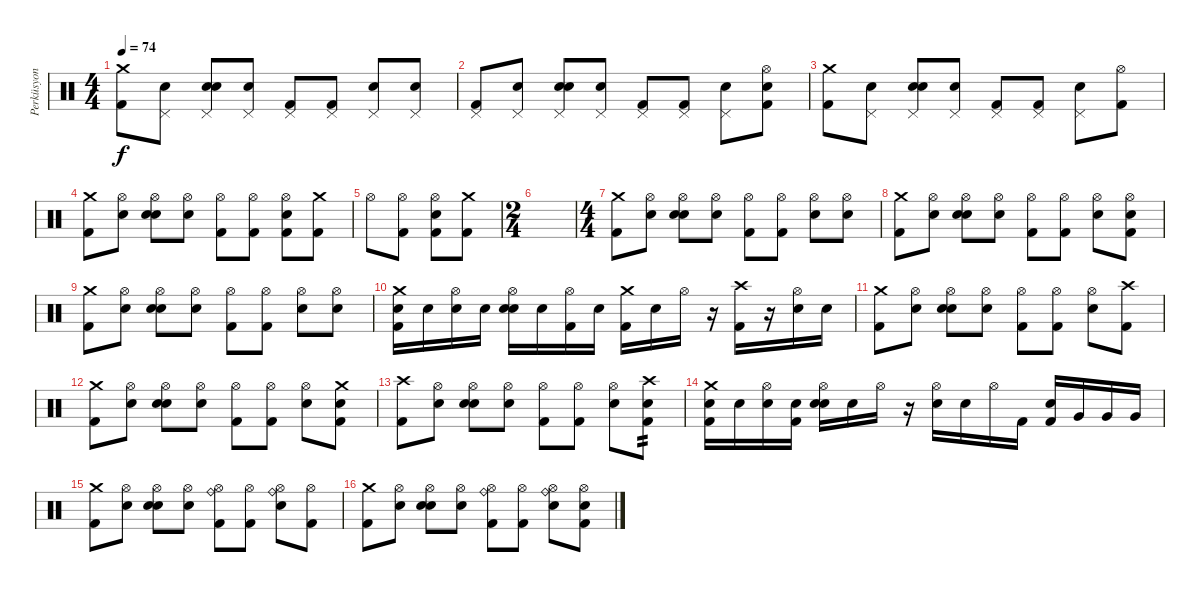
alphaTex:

\track ("Perküsyon" "Perküsyon") {instrument percussion}
\staff {score}
\articulation defaults
\ts (4 4)
\tempo 74
\clef neutral
\ks c
("Crash medium (hit)" "Kick (hit) 2").8{dy f} ("Pedal Hi-Hat (hit)" "Snare (hit)").8 ("Pedal Hi-Hat (hit)" "Electric Snare (hit)" "Snare (hit)").8 ("Pedal Hi-Hat (hit)" "Snare (hit)").8 ("Pedal Hi-Hat (hit)" "Kick (hit) 2").8 ("Pedal Hi-Hat (hit)" "Kick (hit) 2").8 ("Pedal Hi-Hat (hit)" "Electric Snare (hit)").8 ("Pedal Hi-Hat (hit)" "Snare (hit)").8 |
("Pedal Hi-Hat (hit)" "Kick (hit) 2").8 ("Pedal Hi-Hat (hit)" "Snare (hit)").8 ("Pedal Hi-Hat (hit)" "Electric Snare (hit)" "Snare (hit)").8 ("Pedal Hi-Hat (hit)" "Snare (hit)").8 ("Pedal Hi-Hat (hit)" "Kick (hit) 2").8 ("Pedal Hi-Hat (hit)" "Kick (hit) 2").8 ("Pedal Hi-Hat (hit)" "Electric Snare (hit)").8 ("Hi-Hat (open)" "Snare (hit)" "Kick (hit) 2").8 |
("Crash medium (hit)" "Kick (hit) 2").8 ("Pedal Hi-Hat (hit)" "Snare (hit)").8 ("Pedal Hi-Hat (hit)" "Electric Snare (hit)" "Snare (hit)").8 ("Pedal Hi-Hat (hit)" "Snare (hit)").8 ("Pedal Hi-Hat (hit)" "Kick (hit) 2").8 ("Pedal Hi-Hat (hit)" "Kick (hit) 2").8 ("Pedal Hi-Hat (hit)" "Electric Snare (hit)").8 ("Hi-Hat (open)" "Kick (hit) 2").8 |
("Crash medium (hit)" "Kick (hit) 2").8 ("Hi-Hat (open)" "Snare (hit)").8 ("Hi-Hat (open)" "Electric Snare (hit)" "Snare (hit)").8 ("Hi-Hat (open)" "Snare (hit)").8 ("Hi-Hat (open)" "Kick (hit) 2").8 ("Hi-Hat (open)" "Kick (hit) 2").8 ("Hi-Hat (open)" "Electric Snare (hit)" "Kick (hit) 2").8 ("Crash medium (hit)" "Kick (hit) 2").8 |
"Hi-Hat (open)".8 ("Hi-Hat (open)" "Kick (hit) 2").8 ("Hi-Hat (open)" "Electric Snare (hit)" "Kick (hit) 2").8 ("Crash medium (hit)" "Kick (hit) 2").8 |
\ts (2 4)
|
\ts (4 4)
("Crash medium (hit)" "Kick (hit) 2").8 ("Hi-Hat (open)" "Snare (hit)").8 ("Hi-Hat (open)" "Electric Snare (hit)" "Snare (hit)").8 ("Hi-Hat (open)" "Snare (hit)").8 ("Hi-Hat (open)" "Kick (hit) 2").8 ("Hi-Hat (open)" "Kick (hit) 2").8 ("Hi-Hat (open)" "Electric Snare (hit)").8 ("Hi-Hat (open)" "Snare (hit)").8 |
("Crash medium (hit)" "Kick (hit) 2").8 ("Hi-Hat (open)" "Snare (hit)").8 ("Hi-Hat (open)" "Electric Snare (hit)" "Snare (hit)").8 ("Hi-Hat (open)" "Snare (hit)").8 ("Hi-Hat (open)" "Kick (hit) 2").8 ("Hi-Hat (open)" "Kick (hit) 2").8 ("Hi-Hat (open)" "Electric Snare (hit)").8 ("Hi-Hat (open)" "Snare (hit)" "Kick (hit) 2").8 |
("Crash medium (hit)" "Kick (hit) 2").8 ("Hi-Hat (open)" "Snare (hit)").8 ("Hi-Hat (open)" "Electric Snare (hit)" "Snare (hit)").8 ("Hi-Hat (open)" "Snare (hit)").8 ("Hi-Hat (open)" "Kick (hit) 2").8 ("Hi-Hat (open)" "Kick (hit) 2").8 ("Hi-Hat (open)" "Electric Snare (hit)").8 ("Hi-Hat (open)" "Snare (hit)").8 |
("Crash medium (hit)" "Snare (hit)" "Kick (hit) 2").16 "Snare (hit)".16 ("Hi-Hat (open)" "Snare (hit)").16 "Snare (hit)".16 ("Hi-Hat (open)" "Electric Snare (hit)" "Snare (hit)").16 "Snare (hit)".16 ("Hi-Hat (open)" "Kick (hit) 2").16 "Electric Snare (hit)".16 ("Crash medium (hit)" "Kick (hit) 2").16 "Snare (hit)".16 "Hi-Hat (open)".16 r.16 ("Crash high (hit)" "Kick (hit) 2").16 r.16 ("Hi-Hat (open)" "Electric Snare (hit)").16 "Electric Snare (hit)".16 |
("Crash medium (hit)" "Kick (hit) 2").8 ("Hi-Hat (open)" "Snare (hit)").8 ("Hi-Hat (open)" "Electric Snare (hit)" "Snare (hit)").8 ("Hi-Hat (open)" "Snare (hit)").8 ("Hi-Hat (open)" "Kick (hit) 2").8 ("Hi-Hat (open)" "Kick (hit) 2").8 ("Hi-Hat (open)" "Electric Snare (hit)").8 ("Crash high (hit)" "Kick (hit) 2").8 |
("Crash medium (hit)" "Kick (hit) 2").8 ("Hi-Hat (open)" "Snare (hit)").8 ("Hi-Hat (open)" "Electric Snare (hit)" "Snare (hit)").8 ("Hi-Hat (open)" "Snare (hit)").8 ("Hi-Hat (open)" "Kick (hit) 2").8 ("Hi-Hat (open)" "Kick (hit) 2").8 ("Hi-Hat (open)" "Electric Snare (hit)").8 ("Crash medium (hit)" "Snare (hit)" "Kick (hit) 2").8 |
("Crash high (hit)" "Kick (hit) 2").8 ("Hi-Hat (open)" "Snare (hit)").8 ("Hi-Hat (open)" "Electric Snare (hit)" "Snare (hit)").8 ("Hi-Hat (open)" "Snare (hit)").8 ("Hi-Hat (open)" "Kick (hit) 2").8 ("Hi-Hat (open)" "Kick (hit) 2").8 ("Hi-Hat (open)" "Electric Snare (hit)").8 ("Crash high (hit)" "Kick (hit) 2" "Electric Snare (hit)").8{tp 2} |
("Crash medium (hit)" "Snare (hit)" "Kick (hit) 2").16 "Snare (hit)".16 ("Hi-Hat (open)" "Snare (hit)").16 ("Snare (hit)" "Kick (hit) 2").16 ("Hi-Hat (open)" "Electric Snare (hit)" "Snare (hit)").16 "Snare (hit)".16 "Hi-Hat (open)".16 r.16 ("Hi-Hat (open)" "Electric Snare (hit)").16 "Snare (hit)".16 "Hi-Hat (open)".16 "Kick (hit) 2".16 ("Electric Snare (hit)" "Kick (hit) 2").16 "Very Low Tom (hit)".16 "Very Low Tom (hit)".16 "Very Low Tom (hit)".16 |
("Crash medium (hit)" "Kick (hit) 2").8 ("Hi-Hat (open)" "Snare (hit)").8 ("Hi-Hat (open)" "Electric Snare (hit)" "Snare (hit)").8 ("Hi-Hat (open)" "Snare (hit)").8 ("Ride (bell)" "Hi-Hat (open)" "Kick (hit) 2").8 ("Hi-Hat (open)" "Kick (hit) 2").8 ("Hi-Hat (open)" "Ride (bell)" "Electric Snare (hit)").8 ("Hi-Hat (open)" "Kick (hit) 2").8 |
("Crash medium (hit)" "Kick (hit) 2").8 ("Hi-Hat (open)" "Snare (hit)").8 ("Hi-Hat (open)" "Electric Snare (hit)" "Snare (hit)").8 ("Hi-Hat (open)" "Snare (hit)").8 ("Hi-Hat (open)" "Ride (bell)" "Kick (hit) 2").8 ("Hi-Hat (open)" "Kick (hit) 2").8 ("Hi-Hat (open)" "Ride (bell)" "Electric Snare (hit)").8 ("Hi-Hat (open)" "Snare (hit)" "Kick (hit) 2").8
